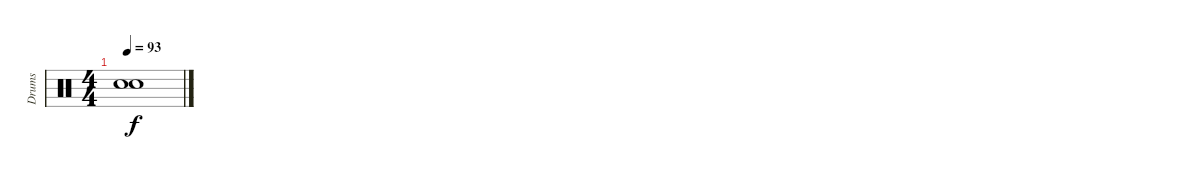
\track ("Drums" "Drums") {instrument percussion}
\staff {score}
\articulation defaults
\ts (4 4)
\tempo 93
\clef neutral
\ks c
("Snare (hit)"{t} "Snare (hit)"{t}).1{dy f}
